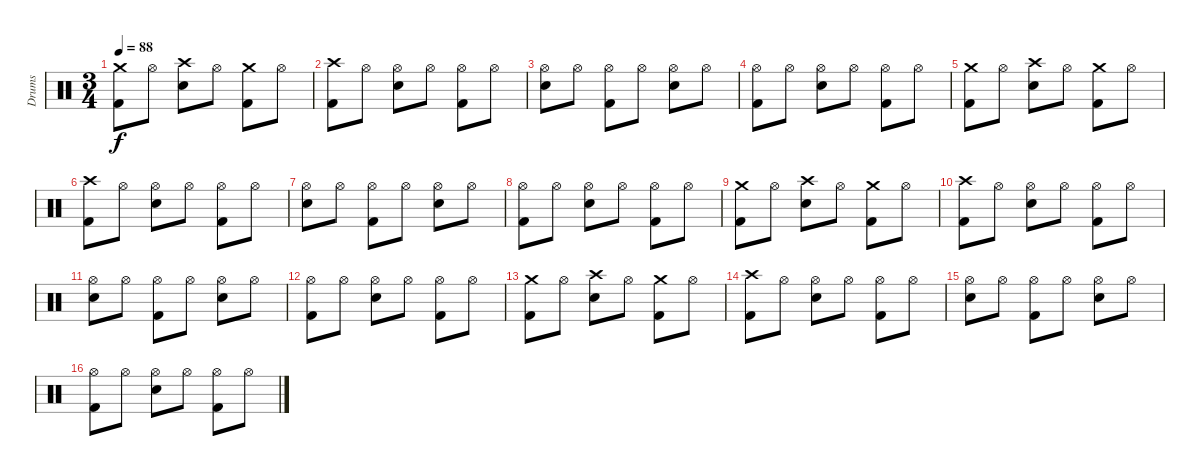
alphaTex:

\track ("Drums" "Drums") {instrument percussion}
\staff {score}
\articulation defaults
\ts (3 4)
\tempo 88
\clef neutral
\ks c
("Crash medium (hit)" "Kick (hit) 2").8{dy f} "Hi-Hat (open)".8 ("Crash high (hit)" "Snare (hit) 2").8 "Hi-Hat (open)".8 ("Crash medium (hit)" "Kick (hit) 2").8 "Hi-Hat (open)".8 |
("Crash high (hit)" "Kick (hit) 2").8 "Hi-Hat (open)".8 ("Hi-Hat (open)" "Snare (hit) 2").8 "Hi-Hat (open)".8 ("Hi-Hat (open)" "Kick (hit) 2").8 "Hi-Hat (open)".8 |
("Hi-Hat (open)" "Snare (hit) 2").8 "Hi-Hat (open)".8 ("Hi-Hat (open)" "Kick (hit) 2").8 "Hi-Hat (open)".8 ("Hi-Hat (open)" "Snare (hit) 2").8 "Hi-Hat (open)".8 |
("Hi-Hat (open)" "Kick (hit) 2").8 "Hi-Hat (open)".8 ("Hi-Hat (open)" "Snare (hit) 2").8 "Hi-Hat (open)".8 ("Hi-Hat (open)" "Kick (hit) 2").8 "Hi-Hat (open)".8 |
("Crash medium (hit)" "Kick (hit) 2").8 "Hi-Hat (open)".8 ("Crash high (hit)" "Snare (hit) 2").8 "Hi-Hat (open)".8 ("Crash medium (hit)" "Kick (hit) 2").8 "Hi-Hat (open)".8 |
("Crash high (hit)" "Kick (hit) 2").8 "Hi-Hat (open)".8 ("Hi-Hat (open)" "Snare (hit) 2").8 "Hi-Hat (open)".8 ("Hi-Hat (open)" "Kick (hit) 2").8 "Hi-Hat (open)".8 |
("Hi-Hat (open)" "Snare (hit) 2").8 "Hi-Hat (open)".8 ("Hi-Hat (open)" "Kick (hit) 2").8 "Hi-Hat (open)".8 ("Hi-Hat (open)" "Snare (hit) 2").8 "Hi-Hat (open)".8 |
("Hi-Hat (open)" "Kick (hit) 2").8 "Hi-Hat (open)".8 ("Hi-Hat (open)" "Snare (hit) 2").8 "Hi-Hat (open)".8 ("Hi-Hat (open)" "Kick (hit) 2").8 "Hi-Hat (open)".8 |
("Crash medium (hit)" "Kick (hit) 2").8 "Hi-Hat (open)".8 ("Crash high (hit)" "Snare (hit) 2").8 "Hi-Hat (open)".8 ("Crash medium (hit)" "Kick (hit) 2").8 "Hi-Hat (open)".8 |
("Crash high (hit)" "Kick (hit) 2").8 "Hi-Hat (open)".8 ("Hi-Hat (open)" "Snare (hit) 2").8 "Hi-Hat (open)".8 ("Hi-Hat (open)" "Kick (hit) 2").8 "Hi-Hat (open)".8 |
("Hi-Hat (open)" "Snare (hit) 2").8 "Hi-Hat (open)".8 ("Hi-Hat (open)" "Kick (hit) 2").8 "Hi-Hat (open)".8 ("Hi-Hat (open)" "Snare (hit) 2").8 "Hi-Hat (open)".8 |
("Hi-Hat (open)" "Kick (hit) 2").8 "Hi-Hat (open)".8 ("Hi-Hat (open)" "Snare (hit) 2").8 "Hi-Hat (open)".8 ("Hi-Hat (open)" "Kick (hit) 2").8 "Hi-Hat (open)".8 |
("Crash medium (hit)" "Kick (hit) 2").8 "Hi-Hat (open)".8 ("Crash high (hit)" "Snare (hit) 2").8 "Hi-Hat (open)".8 ("Crash medium (hit)" "Kick (hit) 2").8 "Hi-Hat (open)".8 |
("Crash high (hit)" "Kick (hit) 2").8 "Hi-Hat (open)".8 ("Hi-Hat (open)" "Snare (hit) 2").8 "Hi-Hat (open)".8 ("Hi-Hat (open)" "Kick (hit) 2").8 "Hi-Hat (open)".8 |
("Hi-Hat (open)" "Snare (hit) 2").8 "Hi-Hat (open)".8 ("Hi-Hat (open)" "Kick (hit) 2").8 "Hi-Hat (open)".8 ("Hi-Hat (open)" "Snare (hit) 2").8 "Hi-Hat (open)".8 |
("Hi-Hat (open)" "Kick (hit) 2").8 "Hi-Hat (open)".8 ("Hi-Hat (open)" "Snare (hit) 2").8 "Hi-Hat (open)".8 ("Hi-Hat (open)" "Kick (hit) 2").8 "Hi-Hat (open)".8
